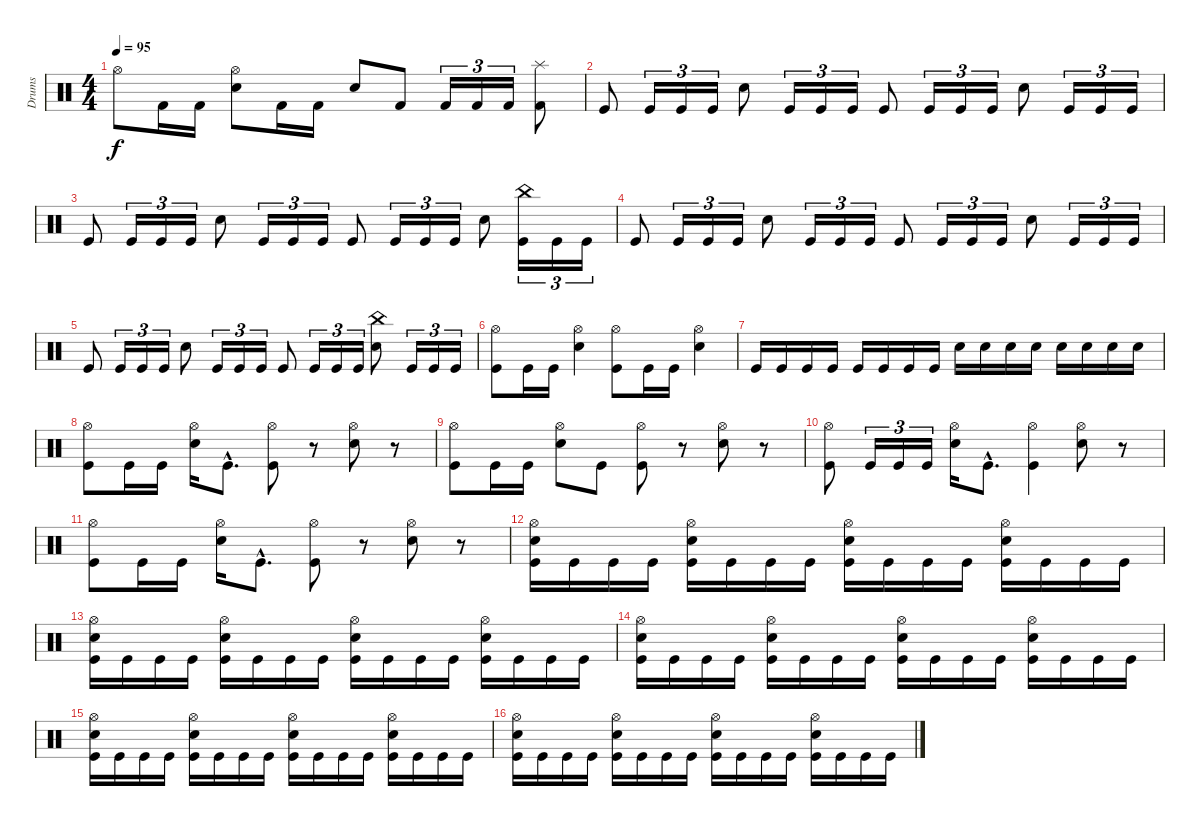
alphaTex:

\track ("Drums" "Drums") {instrument percussion}
\staff {score}
\articulation defaults
\ts (4 4)
\tempo 95
\clef neutral
\ks c "Hi-Hat (open)".8{dy f} "Kick (hit) 2".16 "Kick (hit) 2".16
("Snare (hit) 2" "Hi-Hat (open)").8 "Kick (hit) 2".16 "Kick (hit) 2".16 "Snare (hit) 2".8 "Kick (hit) 2".8 "Kick (hit) 2".16{tu (3 2)} "Kick (hit) 2".16{tu (3 2)} "Kick (hit) 2".16{tu (3 2)} ("Kick (hit) 2" "Splash (hit)").8 |
"Kick (hit)".8 "Kick (hit)".16{tu (3 2)} "Kick (hit)".16{tu (3 2)} "Kick (hit)".16{tu (3 2)} "Snare (hit) 2".8 "Kick (hit)".16{tu (3 2)} "Kick (hit)".16{tu (3 2)} "Kick (hit)".16{tu (3 2)} "Kick (hit)".8 "Kick (hit)".16{tu (3 2)} "Kick (hit)".16{tu (3 2)} "Kick (hit)".16{tu (3 2)} "Snare (hit) 2".8 "Kick (hit)".16{tu (3 2)} "Kick (hit)".16{tu (3 2)} "Kick (hit)".16{tu (3 2)} |
"Kick (hit)".8 "Kick (hit)".16{tu (3 2)} "Kick (hit)".16{tu (3 2)} "Kick (hit)".16{tu (3 2)} "Snare (hit) 2".8 "Kick (hit)".16{tu (3 2)} "Kick (hit)".16{tu (3 2)} "Kick (hit)".16{tu (3 2)} "Kick (hit)".8 "Kick (hit)".16{tu (3 2)} "Kick (hit)".16{tu (3 2)} "Kick (hit)".16{tu (3 2)} "Snare (hit) 2".8 ("Kick (hit)" "China (hit)").16{tu (3 2)} "Kick (hit)".16{tu (3 2)} "Kick (hit)".16{tu (3 2)} |
"Kick (hit)".8 "Kick (hit)".16{tu (3 2)} "Kick (hit)".16{tu (3 2)} "Kick (hit)".16{tu (3 2)} "Snare (hit) 2".8 "Kick (hit)".16{tu (3 2)} "Kick (hit)".16{tu (3 2)} "Kick (hit)".16{tu (3 2)} "Kick (hit)".8 "Kick (hit)".16{tu (3 2)} "Kick (hit)".16{tu (3 2)} "Kick (hit)".16{tu (3 2)} "Snare (hit) 2".8 "Kick (hit)".16{tu (3 2)} "Kick (hit)".16{tu (3 2)} "Kick (hit)".16{tu (3 2)} |
"Kick (hit)".8 "Kick (hit)".16{tu (3 2)} "Kick (hit)".16{tu (3 2)} "Kick (hit)".16{tu (3 2)} "Snare (hit) 2".8 "Kick (hit)".16{tu (3 2)} "Kick (hit)".16{tu (3 2)} "Kick (hit)".16{tu (3 2)} "Kick (hit)".8 "Kick (hit)".16{tu (3 2)} "Kick (hit)".16{tu (3 2)} "Kick (hit)".16{tu (3 2)} ("Snare (hit) 2" "China (hit)").8 "Kick (hit)".16{tu (3 2)} "Kick (hit)".16{tu (3 2)} "Kick (hit)".16{tu (3 2)} |
("Kick (hit)" "Hi-Hat (open)").8 "Kick (hit)".16 "Kick (hit)".16 ("Snare (hit) 2" "Hi-Hat (open)").4 ("Kick (hit)" "Hi-Hat (open)").8 "Kick (hit)".16 "Kick (hit)".16 ("Snare (hit) 2" "Hi-Hat (open)").4 |
"Kick (hit)".16 "Kick (hit)".16 "Kick (hit)".16 "Kick (hit)".16 "Kick (hit)".16 "Kick (hit)".16 "Kick (hit)".16 "Kick (hit)".16 "Snare (hit) 2".16 "Snare (hit) 2".16 "Snare (hit) 2".16 "Snare (hit) 2".16 "Snare (hit) 2".16 "Snare (hit) 2".16 "Snare (hit) 2".16 "Snare (hit) 2".16 |
("Kick (hit)" "Hi-Hat (open)").8 "Kick (hit)".16 "Kick (hit)".16 ("Snare (hit) 2" "Hi-Hat (open)").16 "Kick (hit)"{hac}.8{d} ("Kick (hit)" "Hi-Hat (open)").8 r.8 ("Snare (hit) 2" "Hi-Hat (open)").8 r.8 |
("Kick (hit)" "Hi-Hat (open)").8 "Kick (hit)".16 "Kick (hit)".16 ("Snare (hit) 2" "Hi-Hat (open)").8 "Kick (hit)".8 ("Kick (hit)" "Hi-Hat (open)").8 r.8 ("Snare (hit) 2" "Hi-Hat (open)").8 r.8 |
("Kick (hit)" "Hi-Hat (open)").8 "Kick (hit)".16{tu (3 2)} "Kick (hit)".16{tu (3 2)} "Kick (hit)".16{tu (3 2)} ("Snare (hit) 2" "Hi-Hat (open)").16 "Kick (hit)"{hac}.8{d} ("Kick (hit)" "Hi-Hat (open)").4 ("Snare (hit) 2" "Hi-Hat (open)").8 r.8 |
("Kick (hit)" "Hi-Hat (open)").8 "Kick (hit)".16 "Kick (hit)".16 ("Snare (hit) 2" "Hi-Hat (open)").16 "Kick (hit)"{hac}.8{d} ("Kick (hit)" "Hi-Hat (open)").8 r.8 ("Snare (hit) 2" "Hi-Hat (open)").8 r.8 |
("Kick (hit)" "Snare (hit) 2" "Hi-Hat (open)").16 "Kick (hit)".16 "Kick (hit)".16 "Kick (hit)".16 ("Kick (hit)" "Snare (hit) 2" "Hi-Hat (open)").16 "Kick (hit)".16 "Kick (hit)".16 "Kick (hit)".16 ("Kick (hit)" "Snare (hit) 2" "Hi-Hat (open)").16 "Kick (hit)".16 "Kick (hit)".16 "Kick (hit)".16 ("Kick (hit)" "Snare (hit) 2" "Hi-Hat (open)").16 "Kick (hit)".16 "Kick (hit)".16 "Kick (hit)".16 |
("Kick (hit)" "Snare (hit) 2" "Hi-Hat (open)").16 "Kick (hit)".16 "Kick (hit)".16 "Kick (hit)".16 ("Kick (hit)" "Snare (hit) 2" "Hi-Hat (open)").16 "Kick (hit)".16 "Kick (hit)".16 "Kick (hit)".16 ("Kick (hit)" "Snare (hit) 2" "Hi-Hat (open)").16 "Kick (hit)".16 "Kick (hit)".16 "Kick (hit)".16 ("Kick (hit)" "Snare (hit) 2" "Hi-Hat (open)").16 "Kick (hit)".16 "Kick (hit)".16 "Kick (hit)".16 |
("Kick (hit)" "Snare (hit) 2" "Hi-Hat (open)").16 "Kick (hit)".16 "Kick (hit)".16 "Kick (hit)".16 ("Kick (hit)" "Snare (hit) 2" "Hi-Hat (open)").16 "Kick (hit)".16 "Kick (hit)".16 "Kick (hit)".16 ("Kick (hit)" "Snare (hit) 2" "Hi-Hat (open)").16 "Kick (hit)".16 "Kick (hit)".16 "Kick (hit)".16 ("Kick (hit)" "Snare (hit) 2" "Hi-Hat (open)").16 "Kick (hit)".16 "Kick (hit)".16 "Kick (hit)".16 |
("Kick (hit)" "Snare (hit) 2" "Hi-Hat (open)").16 "Kick (hit)".16 "Kick (hit)".16 "Kick (hit)".16 ("Kick (hit)" "Snare (hit) 2" "Hi-Hat (open)").16 "Kick (hit)".16 "Kick (hit)".16 "Kick (hit)".16 ("Kick (hit)" "Snare (hit) 2" "Hi-Hat (open)").16 "Kick (hit)".16 "Kick (hit)".16 "Kick (hit)".16 ("Kick (hit)" "Snare (hit) 2" "Hi-Hat (open)").16 "Kick (hit)".16 "Kick (hit)".16 "Kick (hit)".16 |
("Kick (hit)" "Snare (hit) 2" "Hi-Hat (open)").16 "Kick (hit)".16 "Kick (hit)".16 "Kick (hit)".16 ("Kick (hit)" "Snare (hit) 2" "Hi-Hat (open)").16 "Kick (hit)".16 "Kick (hit)".16 "Kick (hit)".16 ("Kick (hit)" "Snare (hit) 2" "Hi-Hat (open)").16 "Kick (hit)".16 "Kick (hit)".16 "Kick (hit)".16 ("Kick (hit)" "Snare (hit) 2" "Hi-Hat (open)").16 "Kick (hit)".16 "Kick (hit)".16 "Kick (hit)".16
